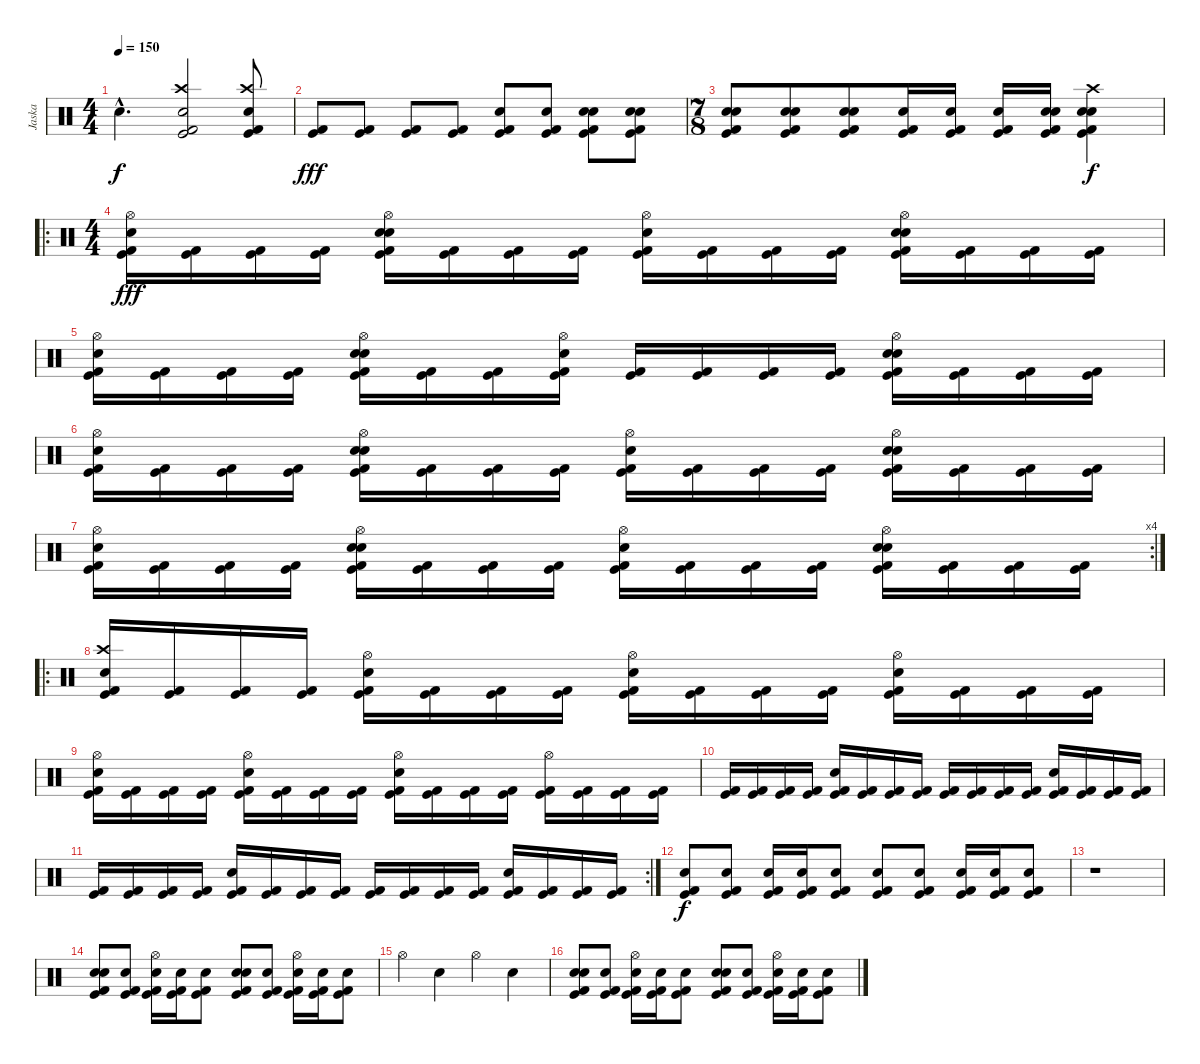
\track ("Jaska" "Jaska") {instrument percussion}
\staff {score}
\articulation defaults
\ts (4 4)
\tempo 150
\clef neutral
\ks c "Snare (hit)"{hac t}.4{d dy f}
("Crash high (hit)" "Snare (hit) 2" "Kick (hit)" "Kick (hit) 2").2 ("Crash high (hit)" "Snare (hit) 2" "Kick (hit)" "Kick (hit) 2").8 |
("Kick (hit)" "Kick (hit) 2").8{dy fff} ("Kick (hit)" "Kick (hit) 2").8 ("Kick (hit)" "Kick (hit) 2").8 ("Kick (hit)" "Kick (hit) 2").8 ("Electric Snare (hit)" "Kick (hit)" "Kick (hit) 2").8 ("Electric Snare (hit)" "Kick (hit)" "Kick (hit) 2").8 ("Electric Snare (hit)" "Snare (hit) 2" "Kick (hit)" "Kick (hit) 2").8 ("Electric Snare (hit)" "Snare (hit) 2" "Kick (hit)" "Kick (hit) 2").8 |
\ts (7 8)
("Electric Snare (hit)" "Snare (hit) 2" "Kick (hit)" "Kick (hit) 2").8 ("Electric Snare (hit)" "Snare (hit) 2" "Kick (hit)" "Kick (hit) 2").8 ("Electric Snare (hit)" "Snare (hit) 2" "Kick (hit)" "Kick (hit) 2").8 ("Snare (hit) 2" "Kick (hit)" "Kick (hit) 2").16 ("Snare (hit) 2" "Kick (hit)" "Kick (hit) 2").16 ("Snare (hit) 2" "Kick (hit)" "Kick (hit) 2").16 ("Electric Snare (hit)" "Snare (hit) 2" "Kick (hit)" "Kick (hit) 2").16 ("Crash high (hit)" "Electric Snare (hit)" "Snare (hit) 2" "Kick (hit)" "Kick (hit) 2").4{dy f} |
\ro
\ts (4 4)
("Hi-Hat (open)" "Snare (hit) 2" "Kick (hit)" "Kick (hit) 2").16{dy fff} ("Kick (hit)" "Kick (hit) 2").16 ("Kick (hit)" "Kick (hit) 2").16 ("Kick (hit)" "Kick (hit) 2").16 ("Hi-Hat (open)" "Electric Snare (hit)" "Snare (hit) 2" "Kick (hit)" "Kick (hit) 2").16 ("Kick (hit)" "Kick (hit) 2").16 ("Kick (hit)" "Kick (hit) 2").16 ("Kick (hit)" "Kick (hit) 2").16 ("Hi-Hat (open)" "Snare (hit) 2" "Kick (hit)" "Kick (hit) 2").16 ("Kick (hit)" "Kick (hit) 2").16 ("Kick (hit)" "Kick (hit) 2").16 ("Kick (hit)" "Kick (hit) 2").16 ("Hi-Hat (open)" "Electric Snare (hit)" "Snare (hit) 2" "Kick (hit)" "Kick (hit) 2").16 ("Kick (hit)" "Kick (hit) 2").16 ("Kick (hit)" "Kick (hit) 2").16 ("Kick (hit)" "Kick (hit) 2").16 |
("Hi-Hat (open)" "Snare (hit) 2" "Kick (hit)" "Kick (hit) 2").16 ("Kick (hit)" "Kick (hit) 2").16 ("Kick (hit)" "Kick (hit) 2").16 ("Kick (hit)" "Kick (hit) 2").16 ("Hi-Hat (open)" "Electric Snare (hit)" "Snare (hit) 2" "Kick (hit)" "Kick (hit) 2").16 ("Kick (hit)" "Kick (hit) 2").16 ("Kick (hit)" "Kick (hit) 2").16 ("Hi-Hat (open)" "Snare (hit) 2" "Kick (hit)" "Kick (hit) 2").16 ("Kick (hit)" "Kick (hit) 2").16 ("Kick (hit)" "Kick (hit) 2").16 ("Kick (hit)" "Kick (hit) 2").16 ("Kick (hit)" "Kick (hit) 2").16 ("Hi-Hat (open)" "Electric Snare (hit)" "Snare (hit) 2" "Kick (hit)" "Kick (hit) 2").16 ("Kick (hit)" "Kick (hit) 2").16 ("Kick (hit)" "Kick (hit) 2").16 ("Kick (hit)" "Kick (hit) 2").16 |
("Hi-Hat (open)" "Snare (hit) 2" "Kick (hit)" "Kick (hit) 2").16 ("Kick (hit)" "Kick (hit) 2").16 ("Kick (hit)" "Kick (hit) 2").16 ("Kick (hit)" "Kick (hit) 2").16 ("Hi-Hat (open)" "Electric Snare (hit)" "Snare (hit) 2" "Kick (hit)" "Kick (hit) 2").16 ("Kick (hit)" "Kick (hit) 2").16 ("Kick (hit)" "Kick (hit) 2").16 ("Kick (hit)" "Kick (hit) 2").16 ("Hi-Hat (open)" "Snare (hit) 2" "Kick (hit)" "Kick (hit) 2").16 ("Kick (hit)" "Kick (hit) 2").16 ("Kick (hit)" "Kick (hit) 2").16 ("Kick (hit)" "Kick (hit) 2").16 ("Hi-Hat (open)" "Electric Snare (hit)" "Snare (hit) 2" "Kick (hit)" "Kick (hit) 2").16 ("Kick (hit)" "Kick (hit) 2").16 ("Kick (hit)" "Kick (hit) 2").16 ("Kick (hit)" "Kick (hit) 2").16 |
\rc 4
("Hi-Hat (open)" "Snare (hit) 2" "Kick (hit)" "Kick (hit) 2").16 ("Kick (hit)" "Kick (hit) 2").16 ("Kick (hit)" "Kick (hit) 2").16 ("Kick (hit)" "Kick (hit) 2").16 ("Hi-Hat (open)" "Electric Snare (hit)" "Snare (hit) 2" "Kick (hit)" "Kick (hit) 2").16 ("Kick (hit)" "Kick (hit) 2").16 ("Kick (hit)" "Kick (hit) 2").16 ("Kick (hit)" "Kick (hit) 2").16 ("Hi-Hat (open)" "Snare (hit) 2" "Kick (hit)" "Kick (hit) 2").16 ("Kick (hit)" "Kick (hit) 2").16 ("Kick (hit)" "Kick (hit) 2").16 ("Kick (hit)" "Kick (hit) 2").16 ("Hi-Hat (open)" "Electric Snare (hit)" "Snare (hit) 2" "Kick (hit)" "Kick (hit) 2").16 ("Kick (hit)" "Kick (hit) 2").16 ("Kick (hit)" "Kick (hit) 2").16 ("Kick (hit)" "Kick (hit) 2").16 |
\ro
("Crash high (hit)" "Snare (hit) 2" "Kick (hit)" "Kick (hit) 2").16 ("Kick (hit)" "Kick (hit) 2").16 ("Kick (hit)" "Kick (hit) 2").16 ("Kick (hit)" "Kick (hit) 2").16 ("Hi-Hat (open)" "Snare (hit) 2" "Kick (hit)" "Kick (hit) 2").16 ("Kick (hit)" "Kick (hit) 2").16 ("Kick (hit)" "Kick (hit) 2").16 ("Kick (hit)" "Kick (hit) 2").16 ("Hi-Hat (open)" "Snare (hit) 2" "Kick (hit)" "Kick (hit) 2").16 ("Kick (hit)" "Kick (hit) 2").16 ("Kick (hit)" "Kick (hit) 2").16 ("Kick (hit)" "Kick (hit) 2").16 ("Hi-Hat (open)" "Snare (hit) 2" "Kick (hit)" "Kick (hit) 2").16 ("Kick (hit)" "Kick (hit) 2").16 ("Kick (hit)" "Kick (hit) 2").16 ("Kick (hit)" "Kick (hit) 2").16 |
("Hi-Hat (open)" "Snare (hit) 2" "Kick (hit)" "Kick (hit) 2").16 ("Kick (hit)" "Kick (hit) 2").16 ("Kick (hit)" "Kick (hit) 2").16 ("Kick (hit)" "Kick (hit) 2").16 ("Hi-Hat (open)" "Snare (hit) 2" "Kick (hit)" "Kick (hit) 2").16 ("Kick (hit)" "Kick (hit) 2").16 ("Kick (hit)" "Kick (hit) 2").16 ("Kick (hit)" "Kick (hit) 2").16 ("Hi-Hat (open)" "Snare (hit) 2" "Kick (hit)" "Kick (hit) 2").16 ("Kick (hit)" "Kick (hit) 2").16 ("Kick (hit)" "Kick (hit) 2").16 ("Kick (hit)" "Kick (hit) 2").16 ("Hi-Hat (open)" "Kick (hit)" "Kick (hit) 2").16 ("Kick (hit)" "Kick (hit) 2").16 ("Kick (hit)" "Kick (hit) 2").16 ("Kick (hit)" "Kick (hit) 2").16 |
("Kick (hit)" "Kick (hit) 2").16 ("Kick (hit)" "Kick (hit) 2").16 ("Kick (hit)" "Kick (hit) 2").16 ("Kick (hit)" "Kick (hit) 2").16 ("Snare (hit) 2" "Kick (hit)" "Kick (hit) 2").16 ("Kick (hit)" "Kick (hit) 2").16 ("Kick (hit)" "Kick (hit) 2").16 ("Kick (hit)" "Kick (hit) 2").16 ("Kick (hit)" "Kick (hit) 2").16 ("Kick (hit)" "Kick (hit) 2").16 ("Kick (hit)" "Kick (hit) 2").16 ("Kick (hit)" "Kick (hit) 2").16 ("Snare (hit) 2" "Kick (hit)" "Kick (hit) 2").16 ("Kick (hit)" "Kick (hit) 2").16 ("Kick (hit)" "Kick (hit) 2").16 ("Kick (hit)" "Kick (hit) 2").16 |
\rc 2
("Kick (hit)" "Kick (hit) 2").16 ("Kick (hit)" "Kick (hit) 2").16 ("Kick (hit)" "Kick (hit) 2").16 ("Kick (hit)" "Kick (hit) 2").16 ("Snare (hit) 2" "Kick (hit)" "Kick (hit) 2").16 ("Kick (hit)" "Kick (hit) 2").16 ("Kick (hit)" "Kick (hit) 2").16 ("Kick (hit)" "Kick (hit) 2").16 ("Kick (hit)" "Kick (hit) 2").16 ("Kick (hit)" "Kick (hit) 2").16 ("Kick (hit)" "Kick (hit) 2").16 ("Kick (hit)" "Kick (hit) 2").16 ("Snare (hit) 2" "Kick (hit)" "Kick (hit) 2").16 ("Kick (hit)" "Kick (hit) 2").16 ("Kick (hit)" "Kick (hit) 2").16 ("Kick (hit)" "Kick (hit) 2").16 |
("Snare (hit) 2" "Kick (hit)" "Kick (hit) 2").8{dy f} ("Snare (hit) 2" "Kick (hit)" "Kick (hit) 2").8 ("Snare (hit) 2" "Kick (hit)" "Kick (hit) 2").16 ("Snare (hit) 2" "Kick (hit)" "Kick (hit) 2").16 ("Snare (hit) 2" "Kick (hit)" "Kick (hit) 2").8 ("Snare (hit) 2" "Kick (hit)" "Kick (hit) 2").8 ("Snare (hit) 2" "Kick (hit)" "Kick (hit) 2").8 ("Snare (hit) 2" "Kick (hit)" "Kick (hit) 2").16 ("Snare (hit) 2" "Kick (hit)" "Kick (hit) 2").16 ("Snare (hit) 2" "Kick (hit)" "Kick (hit) 2").8 |
r.1 |
("Electric Snare (hit)" "Snare (hit) 2" "Kick (hit)" "Kick (hit) 2").8 ("Snare (hit) 2" "Kick (hit)" "Kick (hit) 2").8 ("Hi-Hat (open)" "Snare (hit) 2" "Kick (hit)" "Kick (hit) 2").16 ("Snare (hit) 2" "Kick (hit)" "Kick (hit) 2").16 ("Snare (hit) 2" "Kick (hit)" "Kick (hit) 2").8 ("Electric Snare (hit)" "Snare (hit) 2" "Kick (hit)" "Kick (hit) 2").8 ("Snare (hit) 2" "Kick (hit)" "Kick (hit) 2").8 ("Hi-Hat (open)" "Snare (hit) 2" "Kick (hit)" "Kick (hit) 2").16 ("Snare (hit) 2" "Kick (hit)" "Kick (hit) 2").16 ("Snare (hit) 2" "Kick (hit)" "Kick (hit) 2").8 |
"Hi-Hat (open)".4 "Electric Snare (hit)".4 "Hi-Hat (open)".4 "Electric Snare (hit)".4 |
("Electric Snare (hit)" "Snare (hit) 2" "Kick (hit)" "Kick (hit) 2").8 ("Snare (hit) 2" "Kick (hit)" "Kick (hit) 2").8 ("Hi-Hat (open)" "Snare (hit) 2" "Kick (hit)" "Kick (hit) 2").16 ("Snare (hit) 2" "Kick (hit)" "Kick (hit) 2").16 ("Snare (hit) 2" "Kick (hit)" "Kick (hit) 2").8 ("Electric Snare (hit)" "Snare (hit) 2" "Kick (hit)" "Kick (hit) 2").8 ("Snare (hit) 2" "Kick (hit)" "Kick (hit) 2").8 ("Hi-Hat (open)" "Snare (hit) 2" "Kick (hit)" "Kick (hit) 2").16 ("Snare (hit) 2" "Kick (hit)" "Kick (hit) 2").16 ("Snare (hit) 2" "Kick (hit)" "Kick (hit) 2").8
